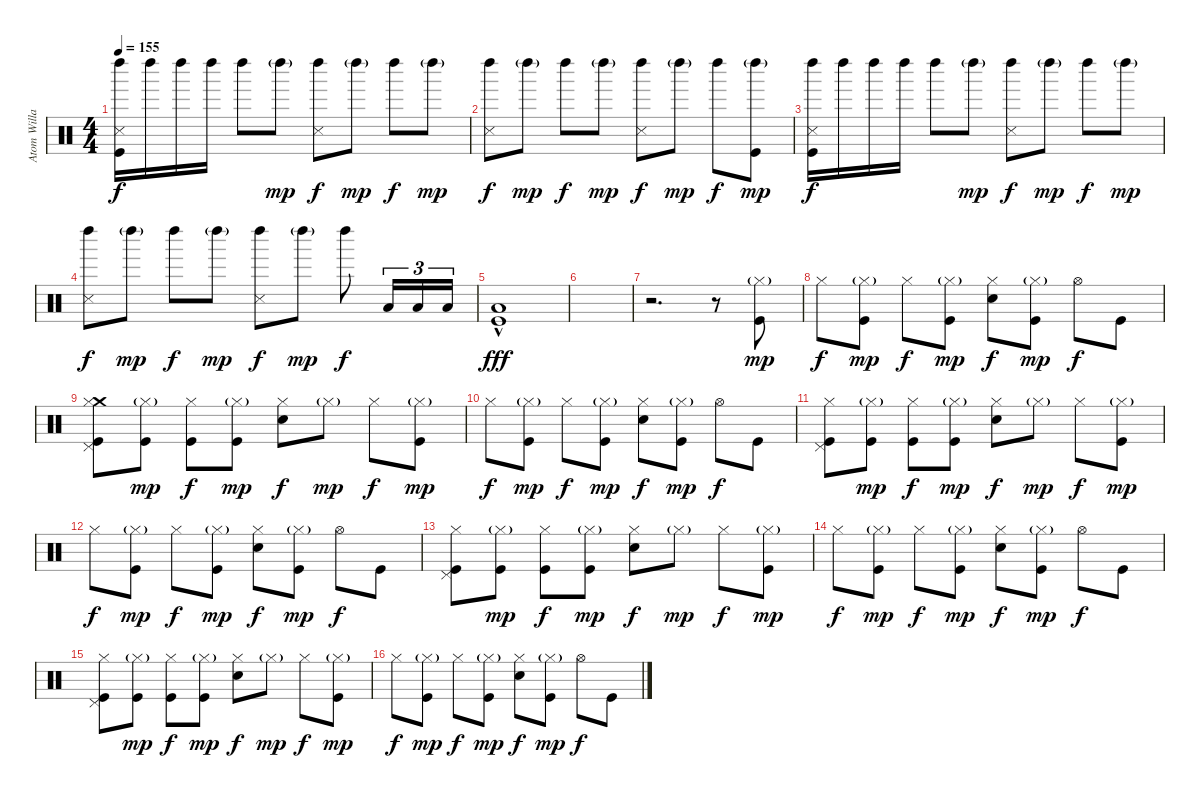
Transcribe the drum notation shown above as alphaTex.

\track ("Atom Willard Drums" "Atom Willa") {instrument percussion}
\staff {score}
\articulation defaults
\ts (4 4)
\tempo 155
\clef neutral
\ks c
("Kick (hit)" "Left Maraca (hit)" "Snare (side stick) 3").16{dy f} "Left Maraca (hit)".16 "Left Maraca (hit)".16 "Left Maraca (hit)".16 "Left Maraca (hit)".8 "Left Maraca (hit)"{g}.8{dy mp} ("Left Maraca (hit)" "Snare (side stick) 3").8{dy f} "Left Maraca (hit)"{g}.8{dy mp} "Left Maraca (hit)".8{dy f} "Left Maraca (hit)"{g}.8{dy mp} |
("Left Maraca (hit)" "Snare (side stick) 3").8{dy f} "Left Maraca (hit)"{g}.8{dy mp} "Left Maraca (hit)".8{dy f} "Left Maraca (hit)"{g}.8{dy mp} ("Left Maraca (hit)" "Snare (side stick) 3").8{dy f} "Left Maraca (hit)"{g}.8{dy mp} "Left Maraca (hit)".8{dy f} ("Left Maraca (hit)"{g} "Kick (hit)").8{dy mp} |
("Kick (hit)" "Left Maraca (hit)" "Snare (side stick) 3").16{dy f} "Left Maraca (hit)".16 "Left Maraca (hit)".16 "Left Maraca (hit)".16 "Left Maraca (hit)".8 "Left Maraca (hit)"{g}.8{dy mp} ("Left Maraca (hit)" "Snare (side stick) 3").8{dy f} "Left Maraca (hit)"{g}.8{dy mp} "Left Maraca (hit)".8{dy f} "Left Maraca (hit)"{g}.8{dy mp} |
("Left Maraca (hit)" "Snare (side stick) 3").8{dy f} "Left Maraca (hit)"{g}.8{dy mp} "Left Maraca (hit)".8{dy f} "Left Maraca (hit)"{g}.8{dy mp} ("Left Maraca (hit)" "Snare (side stick) 3").8{dy f} "Left Maraca (hit)"{g}.8{dy mp} "Left Maraca (hit)".8{dy f} "Low Tom (hit)".16{tu (3 2)} "Low Tom (hit)".16{tu (3 2)} "Low Tom (hit)".16{tu (3 2)} |
("Low Tom (hit)"{hac} "Kick (hit)").1{dy fff} |
|
r.2{d} r.8 ("Hi-Hat (closed)"{g} "Kick (hit)").8{dy mp} |
"Hi-Hat (closed)".8{dy f} ("Hi-Hat (closed)"{g} "Kick (hit)").8{dy mp} "Hi-Hat (closed)".8{dy f} ("Hi-Hat (closed)"{g} "Kick (hit)").8{dy mp} ("Hi-Hat (closed)" "Electric Snare (hit)").8{dy f} ("Hi-Hat (closed)"{g} "Kick (hit)").8{dy mp} "Hi-Hat (open)".8{dy f} "Kick (hit)".8 |
("Kick (hit)" "Crash medium (hit)" "Hi-Hat (closed)" "Pedal Hi-Hat (hit)").8 ("Hi-Hat (closed)"{g} "Kick (hit)").8{dy mp} ("Kick (hit)" "Hi-Hat (closed)").8{dy f} ("Kick (hit)" "Hi-Hat (closed)"{g}).8{dy mp} ("Electric Snare (hit)" "Hi-Hat (closed)").8{dy f} "Hi-Hat (closed)"{g}.8{dy mp} "Hi-Hat (closed)".8{dy f} ("Hi-Hat (closed)"{g} "Kick (hit)").8{dy mp} |
"Hi-Hat (closed)".8{dy f} ("Hi-Hat (closed)"{g} "Kick (hit)").8{dy mp} "Hi-Hat (closed)".8{dy f} ("Hi-Hat (closed)"{g} "Kick (hit)").8{dy mp} ("Electric Snare (hit)" "Hi-Hat (closed)").8{dy f} ("Hi-Hat (closed)"{g} "Kick (hit)").8{dy mp} "Hi-Hat (open)".8{dy f} "Kick (hit)".8 |
("Hi-Hat (closed)" "Kick (hit)" "Pedal Hi-Hat (hit)").8 ("Hi-Hat (closed)"{g} "Kick (hit)").8{dy mp} ("Hi-Hat (closed)" "Kick (hit)").8{dy f} ("Hi-Hat (closed)"{g} "Kick (hit)").8{dy mp} ("Hi-Hat (closed)" "Electric Snare (hit)").8{dy f} "Hi-Hat (closed)"{g}.8{dy mp} "Hi-Hat (closed)".8{dy f} ("Hi-Hat (closed)"{g} "Kick (hit)").8{dy mp} |
"Hi-Hat (closed)".8{dy f} ("Hi-Hat (closed)"{g} "Kick (hit)").8{dy mp} "Hi-Hat (closed)".8{dy f} ("Hi-Hat (closed)"{g} "Kick (hit)").8{dy mp} ("Electric Snare (hit)" "Hi-Hat (closed)").8{dy f} ("Hi-Hat (closed)"{g} "Kick (hit)").8{dy mp} "Hi-Hat (open)".8{dy f} "Kick (hit)".8 |
("Hi-Hat (closed)" "Kick (hit)" "Pedal Hi-Hat (hit)").8 ("Hi-Hat (closed)"{g} "Kick (hit)").8{dy mp} ("Hi-Hat (closed)" "Kick (hit)").8{dy f} ("Hi-Hat (closed)"{g} "Kick (hit)").8{dy mp} ("Hi-Hat (closed)" "Electric Snare (hit)").8{dy f} "Hi-Hat (closed)"{g}.8{dy mp} "Hi-Hat (closed)".8{dy f} ("Hi-Hat (closed)"{g} "Kick (hit)").8{dy mp} |
"Hi-Hat (closed)".8{dy f} ("Hi-Hat (closed)"{g} "Kick (hit)").8{dy mp} "Hi-Hat (closed)".8{dy f} ("Hi-Hat (closed)"{g} "Kick (hit)").8{dy mp} ("Electric Snare (hit)" "Hi-Hat (closed)").8{dy f} ("Hi-Hat (closed)"{g} "Kick (hit)").8{dy mp} "Hi-Hat (open)".8{dy f} "Kick (hit)".8 |
("Hi-Hat (closed)" "Kick (hit)" "Pedal Hi-Hat (hit)").8 ("Hi-Hat (closed)"{g} "Kick (hit)").8{dy mp} ("Hi-Hat (closed)" "Kick (hit)").8{dy f} ("Hi-Hat (closed)"{g} "Kick (hit)").8{dy mp} ("Hi-Hat (closed)" "Electric Snare (hit)").8{dy f} "Hi-Hat (closed)"{g}.8{dy mp} "Hi-Hat (closed)".8{dy f} ("Hi-Hat (closed)"{g} "Kick (hit)").8{dy mp} |
"Hi-Hat (closed)".8{dy f} ("Hi-Hat (closed)"{g} "Kick (hit)").8{dy mp} "Hi-Hat (closed)".8{dy f} ("Hi-Hat (closed)"{g} "Kick (hit)").8{dy mp} ("Electric Snare (hit)" "Hi-Hat (closed)").8{dy f} ("Hi-Hat (closed)"{g} "Kick (hit)").8{dy mp} "Hi-Hat (open)".8{dy f} "Kick (hit)".8
